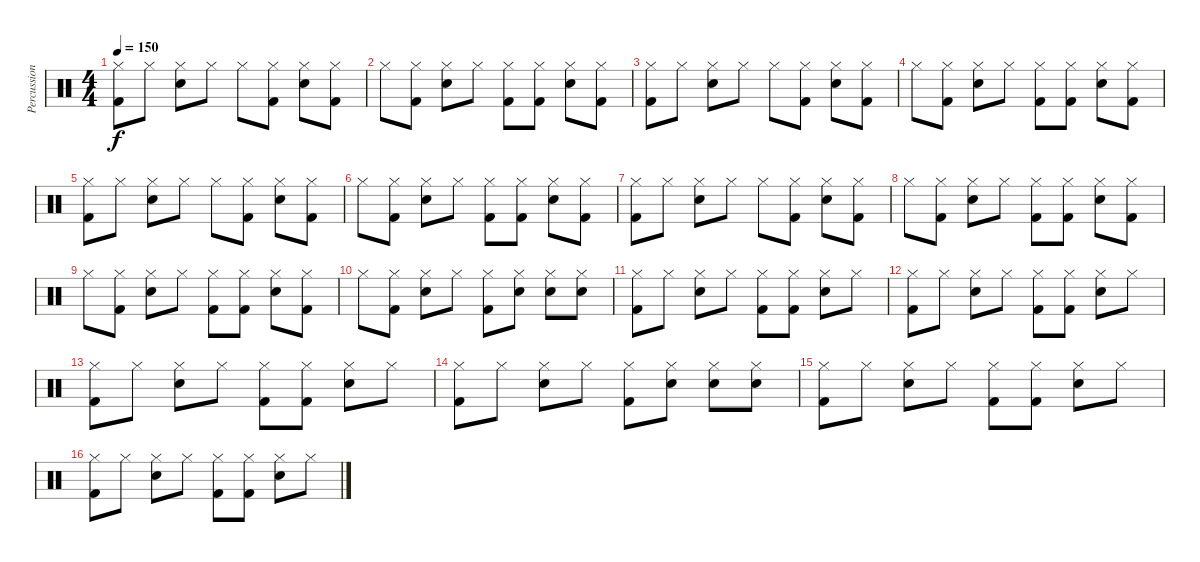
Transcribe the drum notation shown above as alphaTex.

\track ("Percussion" "Percussion") {instrument percussion}
\staff {score}
\articulation defaults
\ts (4 4)
\tempo 150
\clef neutral
\ks c
("Hi-Hat (closed)" "Kick (hit) 2").8{dy f} "Hi-Hat (closed)".8 ("Hi-Hat (closed)" "Electric Snare (hit)").8 "Hi-Hat (closed)".8 "Hi-Hat (closed)".8 ("Hi-Hat (closed)" "Kick (hit) 2").8 ("Hi-Hat (closed)" "Electric Snare (hit)").8 ("Hi-Hat (closed)" "Kick (hit) 2").8 |
"Hi-Hat (closed)".8 ("Hi-Hat (closed)" "Kick (hit) 2").8 ("Hi-Hat (closed)" "Electric Snare (hit)").8 "Hi-Hat (closed)".8 ("Hi-Hat (closed)" "Kick (hit) 2").8 ("Hi-Hat (closed)" "Kick (hit) 2").8 ("Hi-Hat (closed)" "Electric Snare (hit)").8 ("Hi-Hat (closed)" "Kick (hit) 2").8 |
("Hi-Hat (closed)" "Kick (hit) 2").8 "Hi-Hat (closed)".8 ("Hi-Hat (closed)" "Electric Snare (hit)").8 "Hi-Hat (closed)".8 "Hi-Hat (closed)".8 ("Hi-Hat (closed)" "Kick (hit) 2").8 ("Hi-Hat (closed)" "Electric Snare (hit)").8 ("Hi-Hat (closed)" "Kick (hit) 2").8 |
"Hi-Hat (closed)".8 ("Hi-Hat (closed)" "Kick (hit) 2").8 ("Hi-Hat (closed)" "Electric Snare (hit)").8 "Hi-Hat (closed)".8 ("Hi-Hat (closed)" "Kick (hit) 2").8 ("Hi-Hat (closed)" "Kick (hit) 2").8 ("Hi-Hat (closed)" "Electric Snare (hit)").8 ("Hi-Hat (closed)" "Kick (hit) 2").8 |
("Hi-Hat (closed)" "Kick (hit) 2").8 "Hi-Hat (closed)".8 ("Hi-Hat (closed)" "Electric Snare (hit)").8 "Hi-Hat (closed)".8 "Hi-Hat (closed)".8 ("Hi-Hat (closed)" "Kick (hit) 2").8 ("Hi-Hat (closed)" "Electric Snare (hit)").8 ("Hi-Hat (closed)" "Kick (hit) 2").8 |
"Hi-Hat (closed)".8 ("Hi-Hat (closed)" "Kick (hit) 2").8 ("Hi-Hat (closed)" "Electric Snare (hit)").8 "Hi-Hat (closed)".8 ("Hi-Hat (closed)" "Kick (hit) 2").8 ("Hi-Hat (closed)" "Kick (hit) 2").8 ("Hi-Hat (closed)" "Electric Snare (hit)").8 ("Hi-Hat (closed)" "Kick (hit) 2").8 |
("Hi-Hat (closed)" "Kick (hit) 2").8 "Hi-Hat (closed)".8 ("Hi-Hat (closed)" "Electric Snare (hit)").8 "Hi-Hat (closed)".8 "Hi-Hat (closed)".8 ("Hi-Hat (closed)" "Kick (hit) 2").8 ("Hi-Hat (closed)" "Electric Snare (hit)").8 ("Hi-Hat (closed)" "Kick (hit) 2").8 |
"Hi-Hat (closed)".8 ("Hi-Hat (closed)" "Kick (hit) 2").8 ("Hi-Hat (closed)" "Electric Snare (hit)").8 "Hi-Hat (closed)".8 ("Hi-Hat (closed)" "Kick (hit) 2").8 ("Hi-Hat (closed)" "Kick (hit) 2").8 ("Hi-Hat (closed)" "Electric Snare (hit)").8 ("Hi-Hat (closed)" "Kick (hit) 2").8 |
"Hi-Hat (closed)".8 ("Hi-Hat (closed)" "Kick (hit) 2").8 ("Hi-Hat (closed)" "Electric Snare (hit)").8 "Hi-Hat (closed)".8 ("Hi-Hat (closed)" "Kick (hit) 2").8 ("Hi-Hat (closed)" "Kick (hit) 2").8 ("Hi-Hat (closed)" "Electric Snare (hit)").8 ("Hi-Hat (closed)" "Kick (hit) 2").8 |
"Hi-Hat (closed)".8 ("Hi-Hat (closed)" "Kick (hit) 2").8 ("Hi-Hat (closed)" "Electric Snare (hit)").8 "Hi-Hat (closed)".8 ("Hi-Hat (closed)" "Kick (hit) 2").8 ("Hi-Hat (closed)" "Electric Snare (hit)").8 ("Hi-Hat (closed)" "Electric Snare (hit)").8 ("Hi-Hat (closed)" "Electric Snare (hit)").8 |
("Hi-Hat (closed)" "Kick (hit) 2").8 "Hi-Hat (closed)".8 ("Hi-Hat (closed)" "Electric Snare (hit)").8 "Hi-Hat (closed)".8 ("Hi-Hat (closed)" "Kick (hit) 2").8 ("Hi-Hat (closed)" "Kick (hit) 2").8 ("Hi-Hat (closed)" "Electric Snare (hit)").8 "Hi-Hat (closed)".8 |
("Hi-Hat (closed)" "Kick (hit) 2").8 "Hi-Hat (closed)".8 ("Hi-Hat (closed)" "Electric Snare (hit)").8 "Hi-Hat (closed)".8 ("Hi-Hat (closed)" "Kick (hit) 2").8 ("Hi-Hat (closed)" "Kick (hit) 2").8 ("Hi-Hat (closed)" "Electric Snare (hit)").8 "Hi-Hat (closed)".8 |
("Hi-Hat (closed)" "Kick (hit) 2").8 "Hi-Hat (closed)".8 ("Hi-Hat (closed)" "Electric Snare (hit)").8 "Hi-Hat (closed)".8 ("Hi-Hat (closed)" "Kick (hit) 2").8 ("Hi-Hat (closed)" "Kick (hit) 2").8 ("Hi-Hat (closed)" "Electric Snare (hit)").8 "Hi-Hat (closed)".8 |
("Hi-Hat (closed)" "Kick (hit) 2").8 "Hi-Hat (closed)".8 ("Hi-Hat (closed)" "Electric Snare (hit)").8 "Hi-Hat (closed)".8 ("Hi-Hat (closed)" "Kick (hit) 2").8 ("Hi-Hat (closed)" "Electric Snare (hit)").8 ("Hi-Hat (closed)" "Electric Snare (hit)").8 ("Hi-Hat (closed)" "Electric Snare (hit)").8 |
("Hi-Hat (closed)" "Kick (hit) 2").8 "Hi-Hat (closed)".8 ("Hi-Hat (closed)" "Electric Snare (hit)").8 "Hi-Hat (closed)".8 ("Hi-Hat (closed)" "Kick (hit) 2").8 ("Hi-Hat (closed)" "Kick (hit) 2").8 ("Hi-Hat (closed)" "Electric Snare (hit)").8 "Hi-Hat (closed)".8 |
("Hi-Hat (closed)" "Kick (hit) 2").8 "Hi-Hat (closed)".8 ("Hi-Hat (closed)" "Electric Snare (hit)").8 "Hi-Hat (closed)".8 ("Hi-Hat (closed)" "Kick (hit) 2").8 ("Hi-Hat (closed)" "Kick (hit) 2").8 ("Hi-Hat (closed)" "Electric Snare (hit)").8 "Hi-Hat (closed)".8
